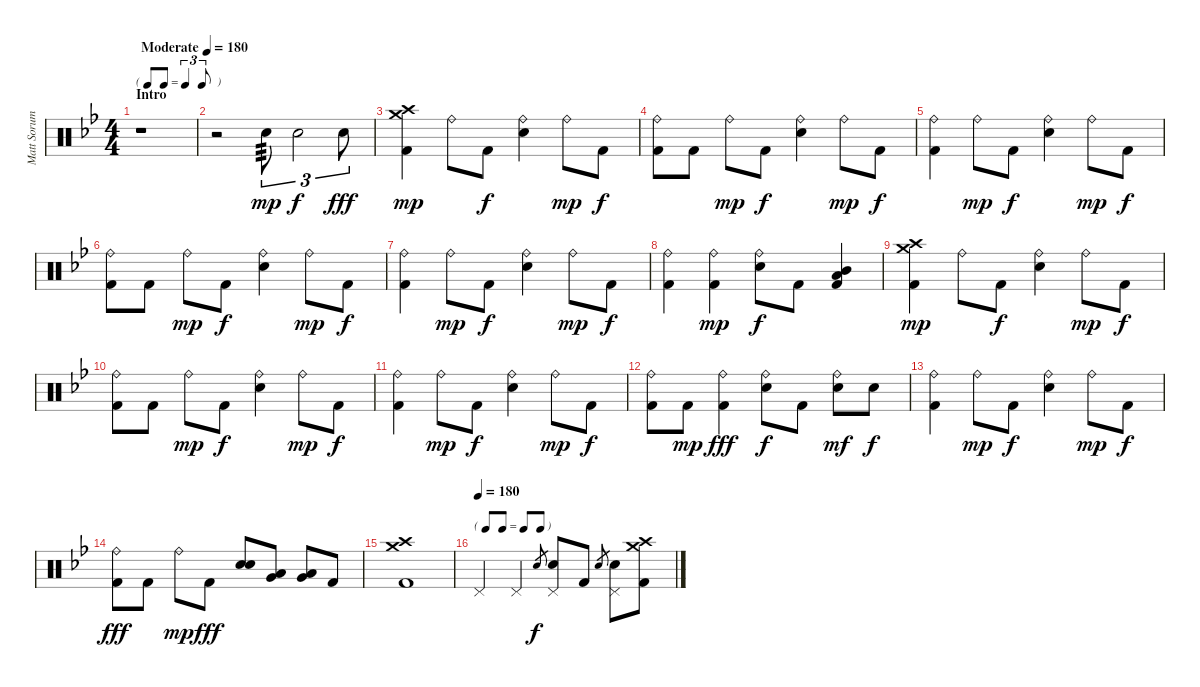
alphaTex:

\track ("Matt Sorum - Drums" "Matt Sorum") {instrument percussion}
\staff {score}
\articulation defaults
\ts (4 4)
\tf triplet8th
\section ("" "Intro")
\tempo (180 "Moderate")
\tempo 120
\tempo (180 "Moderate")
\clef neutral
\ks bb
r.1{dy mp} |
r.2 "Snare (hit) 2".8{tu (3 2) tp 3} "Snare (hit) 2".2{tu (3 2) dy f} "Snare (hit) 2".8{tu (3 2) dy fff} |
("Crash medium (hit)" "Crash high (hit)" "Kick (hit) 2").4{dy mp} "Ride (bell)".8 "Kick (hit) 2".8{dy f} ("Ride (bell)" "Snare (hit) 2").4 "Ride (bell)".8{dy mp} "Kick (hit) 2".8{dy f} |
("Ride (bell)" "Kick (hit) 2").8 "Kick (hit) 2".8 "Ride (bell)".8{dy mp} "Kick (hit) 2".8{dy f} ("Ride (bell)" "Snare (hit) 2").4 "Ride (bell)".8{dy mp} "Kick (hit) 2".8{dy f} |
("Ride (bell)" "Kick (hit) 2").4 "Ride (bell)".8{dy mp} "Kick (hit) 2".8{dy f} ("Ride (bell)" "Snare (hit) 2").4 "Ride (bell)".8{dy mp} "Kick (hit) 2".8{dy f} |
("Ride (bell)" "Kick (hit) 2").8 "Kick (hit) 2".8 "Ride (bell)".8{dy mp} "Kick (hit) 2".8{dy f} ("Ride (bell)" "Snare (hit) 2").4 "Ride (bell)".8{dy mp} "Kick (hit) 2".8{dy f} |
("Ride (bell)" "Kick (hit) 2").4 "Ride (bell)".8{dy mp} "Kick (hit) 2".8{dy f} ("Ride (bell)" "Snare (hit) 2").4 "Ride (bell)".8{dy mp} "Kick (hit) 2".8{dy f} |
("Ride (bell)" "Kick (hit) 2").4 ("Ride (bell)" "Kick (hit) 2").4{dy mp} ("Ride (bell)" "Snare (hit) 2").8{dy f} "Kick (hit) 2".8 ("Mid Tom (hit)" "Low Tom (hit)" "Kick (hit) 2").4 |
("Crash medium (hit)" "Crash high (hit)" "Kick (hit) 2").4{dy mp} "Ride (bell)".8 "Kick (hit) 2".8{dy f} ("Ride (bell)" "Snare (hit) 2").4 "Ride (bell)".8{dy mp} "Kick (hit) 2".8{dy f} |
("Ride (bell)" "Kick (hit) 2").8 "Kick (hit) 2".8 "Ride (bell)".8{dy mp} "Kick (hit) 2".8{dy f} ("Ride (bell)" "Snare (hit) 2").4 "Ride (bell)".8{dy mp} "Kick (hit) 2".8{dy f} |
("Ride (bell)" "Kick (hit) 2").4 "Ride (bell)".8{dy mp} "Kick (hit) 2".8{dy f} ("Ride (bell)" "Snare (hit) 2").4 "Ride (bell)".8{dy mp} "Kick (hit) 2".8{dy f} |
("Ride (bell)" "Kick (hit) 2").8 "Kick (hit) 2".8{dy mp} ("Ride (bell)" "Kick (hit) 2").4{dy fff} ("Ride (bell)" "Snare (hit) 2").8{dy f} "Kick (hit) 2".8 ("Ride (bell)" "Snare (hit) 2").8{dy mf} "Snare (hit) 2".8{dy f} |
("Ride (bell)" "Kick (hit) 2").4 "Ride (bell)".8{dy mp} "Kick (hit) 2".8{dy f} ("Ride (bell)" "Snare (hit) 2").4 "Ride (bell)".8{dy mp} "Kick (hit) 2".8{dy f} |
("Ride (bell)" "Kick (hit) 2").8{dy fff} "Kick (hit) 2".8 "Ride (bell)".8{dy mp} "Kick (hit) 2".8{dy fff} ("Electric Snare (hit)" "Snare (hit) 2").8 ("Low Tom (hit)" "Very Low Tom (hit)").8 ("Low Tom (hit)" "Very Low Tom (hit)").8 "Kick (hit) 2".8 |
("Crash medium (hit)" "Crash high (hit)" "Kick (hit) 2").1 |
\tf none
\tempo (180)
"Pedal Hi-Hat (hit)".4 "Pedal Hi-Hat (hit)".4 "Snare (hit) 2".8{gr dy f} ("Pedal Hi-Hat (hit)" "Snare (hit) 2").8 "Kick (hit) 2".8 "Snare (hit) 2".8{gr} ("Pedal Hi-Hat (hit)" "Snare (hit) 2").8 ("Crash medium (hit)" "Crash high (hit)" "Kick (hit) 2").8
